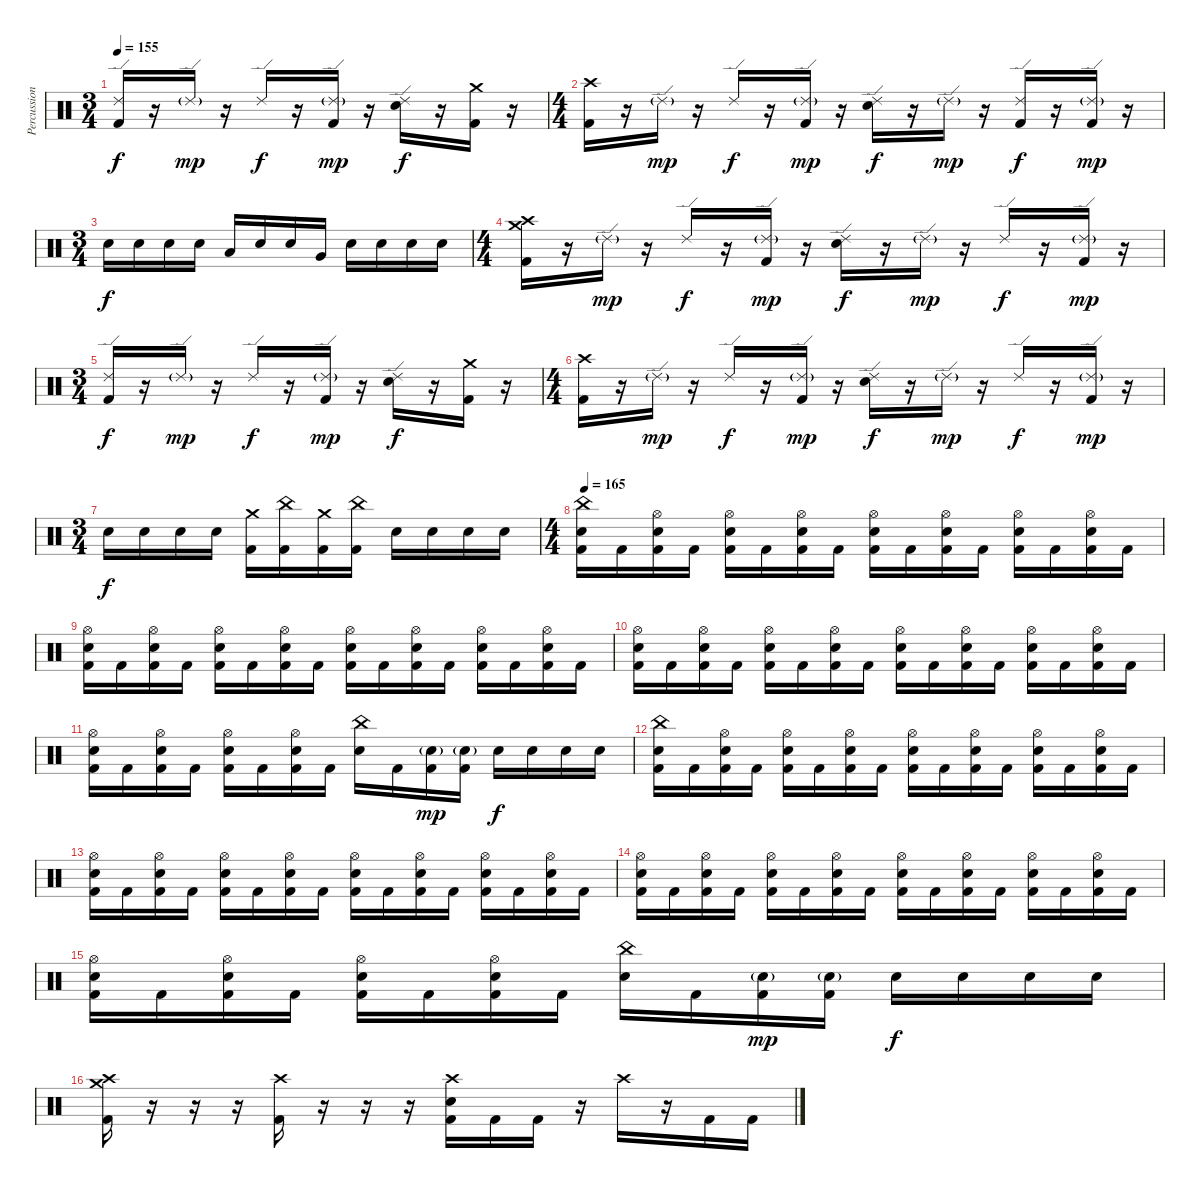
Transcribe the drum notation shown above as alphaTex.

\track ("Percussion" "Percussion") {instrument percussion}
\staff {score}
\articulation defaults
\ts (3 4)
\tempo 155
\clef neutral
\ks c
("Kick (hit) 2" "Ride (edge) 2").16{dy f} r.16 "Ride (edge) 2"{g}.16{dy mp} r.16 "Ride (edge) 2".16{dy f} r.16 ("Kick (hit) 2" "Ride (edge) 2"{g}).16{dy mp} r.16 ("Electric Snare (hit)" "Ride (edge) 2").16{dy f} r.16 ("Kick (hit) 2" "Crash medium (hit)").16 r.16 |
\ts (4 4)
("Kick (hit) 2" "Crash high (hit)").16 r.16 "Ride (edge) 2"{g}.16{dy mp} r.16 "Ride (edge) 2".16{dy f} r.16 ("Kick (hit) 2" "Ride (edge) 2"{g}).16{dy mp} r.16 ("Electric Snare (hit)" "Ride (edge) 2").16{dy f} r.16 "Ride (edge) 2"{g}.16{dy mp} r.16 ("Kick (hit) 2" "Ride (edge) 2").16{dy f} r.16 ("Kick (hit) 2" "Ride (edge) 2"{g}).16{dy mp} r.16 |
\ts (3 4)
"Electric Snare (hit)".16{dy f} "Electric Snare (hit)".16 "Electric Snare (hit)".16 "Electric Snare (hit)".16 "Low Tom (hit)".16 "Electric Snare (hit)".16 "Electric Snare (hit)".16 "Very Low Tom (hit)".16 "Electric Snare (hit)".16 "Electric Snare (hit)".16 "Electric Snare (hit)".16 "Electric Snare (hit)".16 |
\ts (4 4)
("Kick (hit) 2" "Crash medium (hit)" "Crash high (hit)").16 r.16 "Ride (edge) 2"{g}.16{dy mp} r.16 "Ride (edge) 2".16{dy f} r.16 ("Kick (hit) 2" "Ride (edge) 2"{g}).16{dy mp} r.16 ("Electric Snare (hit)" "Ride (edge) 2").16{dy f} r.16 "Ride (edge) 2"{g}.16{dy mp} r.16 "Ride (edge) 2".16{dy f} r.16 ("Kick (hit) 2" "Ride (edge) 2"{g}).16{dy mp} r.16 |
\ts (3 4)
("Kick (hit) 2" "Ride (edge) 2").16{dy f} r.16 "Ride (edge) 2"{g}.16{dy mp} r.16 "Ride (edge) 2".16{dy f} r.16 ("Kick (hit) 2" "Ride (edge) 2"{g}).16{dy mp} r.16 ("Electric Snare (hit)" "Ride (edge) 2").16{dy f} r.16 ("Kick (hit) 2" "Crash medium (hit)").16 r.16 |
\ts (4 4)
("Kick (hit) 2" "Crash high (hit)").16 r.16 "Ride (edge) 2"{g}.16{dy mp} r.16 "Ride (edge) 2".16{dy f} r.16 ("Kick (hit) 2" "Ride (edge) 2"{g}).16{dy mp} r.16 ("Electric Snare (hit)" "Ride (edge) 2").16{dy f} r.16 "Ride (edge) 2"{g}.16{dy mp} r.16 "Ride (edge) 2".16{dy f} r.16 ("Kick (hit) 2" "Ride (edge) 2"{g}).16{dy mp} r.16 |
\ts (3 4)
"Electric Snare (hit)".16{dy f} "Electric Snare (hit)".16 "Electric Snare (hit)".16 "Electric Snare (hit)".16 ("Kick (hit) 2" "Crash medium (hit)").16 ("Kick (hit) 2" "China (hit)").16 ("Kick (hit) 2" "Crash medium (hit)").16 ("Kick (hit) 2" "China (hit)").16 "Electric Snare (hit)".16 "Electric Snare (hit)".16 "Electric Snare (hit)".16 "Electric Snare (hit)".16 |
\ts (4 4)
\tempo 165
("Kick (hit) 2" "Electric Snare (hit)" "China (hit)").16 "Kick (hit) 2".16 ("Kick (hit) 2" "Electric Snare (hit)" "Hi-Hat (open)").16 "Kick (hit) 2".16 ("Kick (hit) 2" "Electric Snare (hit)" "Hi-Hat (open)").16 "Kick (hit) 2".16 ("Kick (hit) 2" "Electric Snare (hit)" "Hi-Hat (open)").16 "Kick (hit) 2".16 ("Kick (hit) 2" "Electric Snare (hit)" "Hi-Hat (open)").16 "Kick (hit) 2".16 ("Kick (hit) 2" "Electric Snare (hit)" "Hi-Hat (open)").16 "Kick (hit) 2".16 ("Kick (hit) 2" "Electric Snare (hit)" "Hi-Hat (open)").16 "Kick (hit) 2".16 ("Kick (hit) 2" "Electric Snare (hit)" "Hi-Hat (open)").16 "Kick (hit) 2".16 |
("Kick (hit) 2" "Electric Snare (hit)" "Hi-Hat (open)").16 "Kick (hit) 2".16 ("Kick (hit) 2" "Electric Snare (hit)" "Hi-Hat (open)").16 "Kick (hit) 2".16 ("Kick (hit) 2" "Electric Snare (hit)" "Hi-Hat (open)").16 "Kick (hit) 2".16 ("Kick (hit) 2" "Electric Snare (hit)" "Hi-Hat (open)").16 "Kick (hit) 2".16 ("Kick (hit) 2" "Electric Snare (hit)" "Hi-Hat (open)").16 "Kick (hit) 2".16 ("Kick (hit) 2" "Electric Snare (hit)" "Hi-Hat (open)").16 "Kick (hit) 2".16 ("Kick (hit) 2" "Electric Snare (hit)" "Hi-Hat (open)").16 "Kick (hit) 2".16 ("Kick (hit) 2" "Electric Snare (hit)" "Hi-Hat (open)").16 "Kick (hit) 2".16 |
("Kick (hit) 2" "Electric Snare (hit)" "Hi-Hat (open)").16 "Kick (hit) 2".16 ("Kick (hit) 2" "Electric Snare (hit)" "Hi-Hat (open)").16 "Kick (hit) 2".16 ("Kick (hit) 2" "Electric Snare (hit)" "Hi-Hat (open)").16 "Kick (hit) 2".16 ("Kick (hit) 2" "Electric Snare (hit)" "Hi-Hat (open)").16 "Kick (hit) 2".16 ("Kick (hit) 2" "Electric Snare (hit)" "Hi-Hat (open)").16 "Kick (hit) 2".16 ("Kick (hit) 2" "Electric Snare (hit)" "Hi-Hat (open)").16 "Kick (hit) 2".16 ("Kick (hit) 2" "Electric Snare (hit)" "Hi-Hat (open)").16 "Kick (hit) 2".16 ("Kick (hit) 2" "Electric Snare (hit)" "Hi-Hat (open)").16 "Kick (hit) 2".16 |
("Kick (hit) 2" "Electric Snare (hit)" "Hi-Hat (open)").16 "Kick (hit) 2".16 ("Kick (hit) 2" "Electric Snare (hit)" "Hi-Hat (open)").16 "Kick (hit) 2".16 ("Kick (hit) 2" "Electric Snare (hit)" "Hi-Hat (open)").16 "Kick (hit) 2".16 ("Kick (hit) 2" "Electric Snare (hit)" "Hi-Hat (open)").16 "Kick (hit) 2".16 ("Electric Snare (hit)" "China (hit)").16 "Kick (hit) 2".16 ("Kick (hit) 2" "Electric Snare (hit)"{g}).16{dy mp} ("Kick (hit) 2" "Electric Snare (hit)"{g}).16 "Electric Snare (hit)".16{dy f} "Electric Snare (hit)".16 "Electric Snare (hit)".16 "Electric Snare (hit)".16 |
("Kick (hit) 2" "Electric Snare (hit)" "China (hit)").16 "Kick (hit) 2".16 ("Kick (hit) 2" "Electric Snare (hit)" "Hi-Hat (open)").16 "Kick (hit) 2".16 ("Kick (hit) 2" "Electric Snare (hit)" "Hi-Hat (open)").16 "Kick (hit) 2".16 ("Kick (hit) 2" "Electric Snare (hit)" "Hi-Hat (open)").16 "Kick (hit) 2".16 ("Kick (hit) 2" "Electric Snare (hit)" "Hi-Hat (open)").16 "Kick (hit) 2".16 ("Kick (hit) 2" "Electric Snare (hit)" "Hi-Hat (open)").16 "Kick (hit) 2".16 ("Kick (hit) 2" "Electric Snare (hit)" "Hi-Hat (open)").16 "Kick (hit) 2".16 ("Kick (hit) 2" "Electric Snare (hit)" "Hi-Hat (open)").16 "Kick (hit) 2".16 |
("Kick (hit) 2" "Electric Snare (hit)" "Hi-Hat (open)").16 "Kick (hit) 2".16 ("Kick (hit) 2" "Electric Snare (hit)" "Hi-Hat (open)").16 "Kick (hit) 2".16 ("Kick (hit) 2" "Electric Snare (hit)" "Hi-Hat (open)").16 "Kick (hit) 2".16 ("Kick (hit) 2" "Electric Snare (hit)" "Hi-Hat (open)").16 "Kick (hit) 2".16 ("Kick (hit) 2" "Electric Snare (hit)" "Hi-Hat (open)").16 "Kick (hit) 2".16 ("Kick (hit) 2" "Electric Snare (hit)" "Hi-Hat (open)").16 "Kick (hit) 2".16 ("Kick (hit) 2" "Electric Snare (hit)" "Hi-Hat (open)").16 "Kick (hit) 2".16 ("Kick (hit) 2" "Electric Snare (hit)" "Hi-Hat (open)").16 "Kick (hit) 2".16 |
("Kick (hit) 2" "Electric Snare (hit)" "Hi-Hat (open)").16 "Kick (hit) 2".16 ("Kick (hit) 2" "Electric Snare (hit)" "Hi-Hat (open)").16 "Kick (hit) 2".16 ("Kick (hit) 2" "Electric Snare (hit)" "Hi-Hat (open)").16 "Kick (hit) 2".16 ("Kick (hit) 2" "Electric Snare (hit)" "Hi-Hat (open)").16 "Kick (hit) 2".16 ("Kick (hit) 2" "Electric Snare (hit)" "Hi-Hat (open)").16 "Kick (hit) 2".16 ("Kick (hit) 2" "Electric Snare (hit)" "Hi-Hat (open)").16 "Kick (hit) 2".16 ("Kick (hit) 2" "Electric Snare (hit)" "Hi-Hat (open)").16 "Kick (hit) 2".16 ("Kick (hit) 2" "Electric Snare (hit)" "Hi-Hat (open)").16 "Kick (hit) 2".16 |
("Kick (hit) 2" "Electric Snare (hit)" "Hi-Hat (open)").16 "Kick (hit) 2".16 ("Kick (hit) 2" "Electric Snare (hit)" "Hi-Hat (open)").16 "Kick (hit) 2".16 ("Kick (hit) 2" "Electric Snare (hit)" "Hi-Hat (open)").16 "Kick (hit) 2".16 ("Kick (hit) 2" "Electric Snare (hit)" "Hi-Hat (open)").16 "Kick (hit) 2".16 ("Electric Snare (hit)" "China (hit)").16 "Kick (hit) 2".16 ("Kick (hit) 2" "Electric Snare (hit)"{g}).16{dy mp} ("Kick (hit) 2" "Electric Snare (hit)"{g}).16 "Electric Snare (hit)".16{dy f} "Electric Snare (hit)".16 "Electric Snare (hit)".16 "Electric Snare (hit)".16 |
("Kick (hit) 2" "Crash medium (hit)" "Crash high (hit)").16 r.16 r.16 r.16 ("Kick (hit) 2" "Crash high (hit)").16 r.16 r.16 r.16 ("Kick (hit) 2" "Electric Snare (hit)" "Crash high (hit)").16 "Kick (hit) 2".16 "Kick (hit) 2".16 r.16 "Crash high (hit)".16 r.16 "Kick (hit) 2".16 "Kick (hit) 2".16
